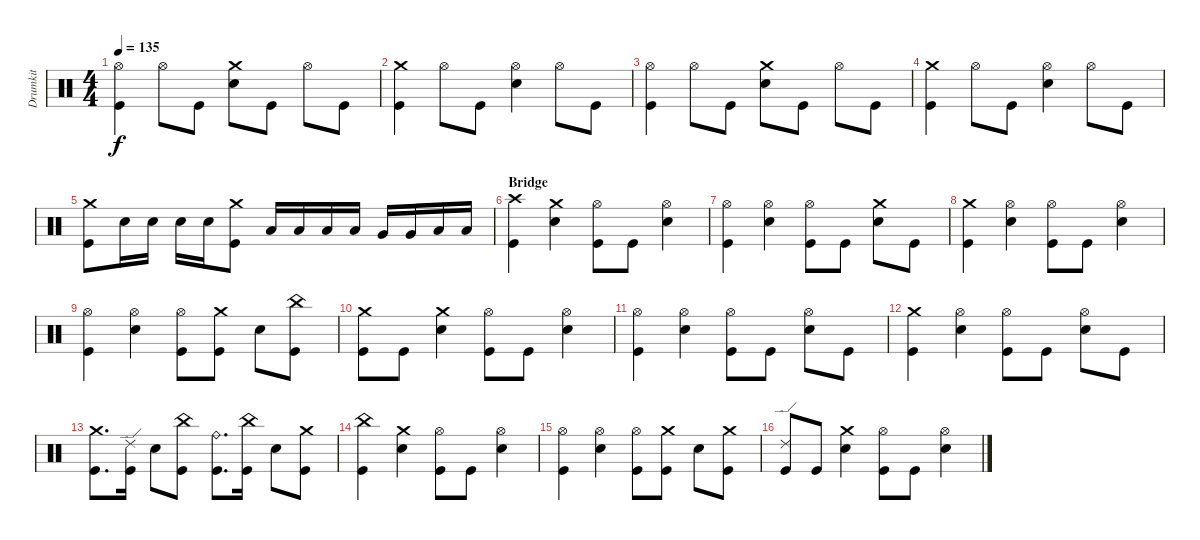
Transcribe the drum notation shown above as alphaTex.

\track ("Drumkit" "Drumkit") {instrument percussion}
\staff {score}
\articulation defaults
\ts (4 4)
\tempo 135
\clef neutral
\ks c
("Kick (hit)" "Hi-Hat (open)").4{dy f} "Hi-Hat (open)".8 "Kick (hit)".8 ("Snare (hit) 2" "Crash medium (hit)").8 "Kick (hit)".8 "Hi-Hat (open)".8 "Kick (hit)".8 |
("Kick (hit)" "Crash medium (hit)").4 "Hi-Hat (open)".8 "Kick (hit)".8 ("Snare (hit) 2" "Hi-Hat (open)").4 "Hi-Hat (open)".8 "Kick (hit)".8 |
("Kick (hit)" "Hi-Hat (open)").4 "Hi-Hat (open)".8 "Kick (hit)".8 ("Snare (hit) 2" "Crash medium (hit)").8 "Kick (hit)".8 "Hi-Hat (open)".8 "Kick (hit)".8 |
("Kick (hit)" "Crash medium (hit)").4 "Hi-Hat (open)".8 "Kick (hit)".8 ("Snare (hit) 2" "Hi-Hat (open)").4 "Hi-Hat (open)".8 "Kick (hit)".8 |
("Kick (hit)" "Crash medium (hit)").8 "Snare (hit) 2".16 "Snare (hit) 2".16 "Snare (hit) 2".16 "Snare (hit) 2".16 ("Kick (hit)" "Crash medium (hit)").8 "Low Tom (hit)".16 "Low Floor Tom (hit)".16 "Low Tom (hit)".16 "Low Floor Tom (hit)".16 "Very Low Tom (hit)".16 "Very Low Tom (hit)".16 "Low Floor Tom (hit)".16 "Low Floor Tom (hit)".16 |
\section ("" "Bridge")
("Kick (hit)" "Crash high (hit)").4 ("Snare (hit) 2" "Crash medium (hit)").4 ("Kick (hit)" "Hi-Hat (open)").8 "Kick (hit)".8 ("Snare (hit) 2" "Hi-Hat (open)").4 |
("Kick (hit)" "Hi-Hat (open)").4 ("Snare (hit) 2" "Hi-Hat (open)").4 ("Kick (hit)" "Hi-Hat (open)").8 "Kick (hit)".8 ("Snare (hit) 2" "Crash medium (hit)").8 "Kick (hit)".8 |
("Crash medium (hit)" "Kick (hit)").4 ("Snare (hit) 2" "Hi-Hat (open)").4 ("Kick (hit)" "Hi-Hat (open)").8 "Kick (hit)".8 ("Snare (hit) 2" "Hi-Hat (open)").4 |
("Kick (hit)" "Hi-Hat (open)").4 ("Snare (hit) 2" "Hi-Hat (open)").4 ("Kick (hit)" "Hi-Hat (open)").8 ("Kick (hit)" "Crash medium (hit)").8 "Snare (hit) 2".8 ("Kick (hit)" "China (hit)").8 |
("Kick (hit)" "Crash medium (hit)").8 "Kick (hit)".8 ("Snare (hit) 2" "Crash medium (hit)").4 ("Kick (hit)" "Hi-Hat (open)").8 "Kick (hit)".8 ("Snare (hit) 2" "Hi-Hat (open)").4 |
("Kick (hit)" "Hi-Hat (open)").4 ("Snare (hit) 2" "Hi-Hat (open)").4 ("Kick (hit)" "Hi-Hat (open)").8 "Kick (hit)".8 ("Snare (hit) 2" "Hi-Hat (open)").8 "Kick (hit)".8 |
("Crash medium (hit)" "Kick (hit)").4 ("Snare (hit) 2" "Hi-Hat (open)").4 ("Kick (hit)" "Hi-Hat (open)").8 "Kick (hit)".8 ("Snare (hit) 2" "Hi-Hat (open)").8 "Kick (hit)".8 |
("Kick (hit)" "Crash medium (hit)").8{d} ("Kick (hit)" "Ride (edge) 2").16 "Snare (hit) 2".8 ("Kick (hit)" "China (hit)").8 ("Ride (bell)" "Kick (hit)").8{d} ("Kick (hit)" "China (hit)").16 "Snare (hit) 2".8 ("Kick (hit)" "Crash medium (hit)").8 |
("China (hit)" "Kick (hit)").4 ("Snare (hit) 2" "Crash medium (hit)").4 ("Kick (hit)" "Hi-Hat (open)").8 "Kick (hit)".8 ("Snare (hit) 2" "Hi-Hat (open)").4 |
("Kick (hit)" "Hi-Hat (open)").4 ("Snare (hit) 2" "Hi-Hat (open)").4 ("Kick (hit)" "Hi-Hat (open)").8 ("Kick (hit)" "Crash medium (hit)").8 "Snare (hit) 2".8 ("Kick (hit)" "Crash medium (hit)").8 |
("Ride (edge) 2" "Kick (hit)").8 "Kick (hit)".8 ("Snare (hit) 2" "Crash medium (hit)").4 ("Kick (hit)" "Hi-Hat (open)").8 "Kick (hit)".8 ("Snare (hit) 2" "Hi-Hat (open)").4
